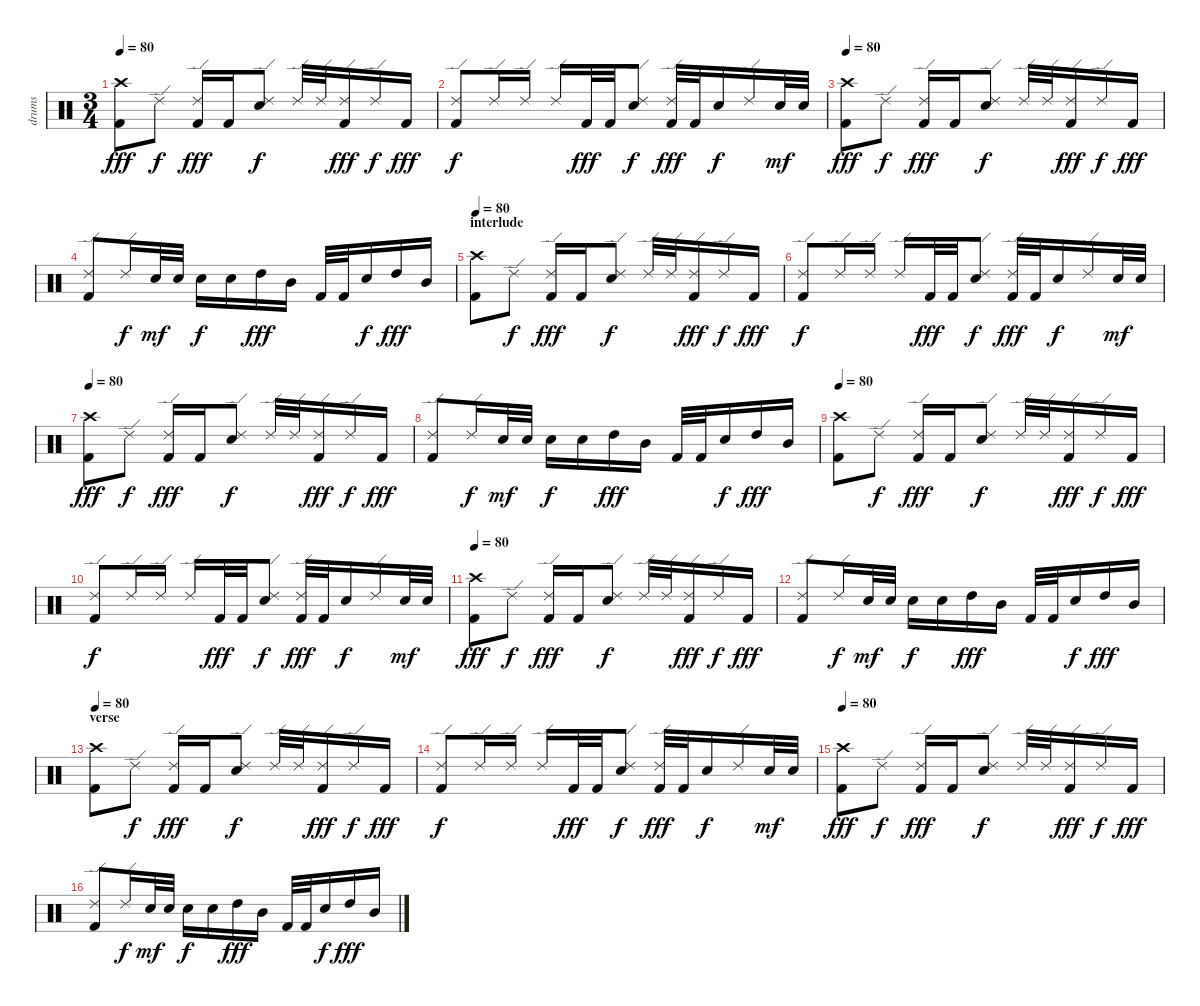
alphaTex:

\track ("drums" "drums") {instrument percussion}
\staff {score}
\articulation defaults
\ts (3 4)
\tempo 80
\clef neutral
\ks c
("Crash high (hit)" "Kick (hit) 2").8{dy fff} "Ride (edge) 2".8{dy f} ("Ride (edge) 2" "Kick (hit) 2").16{dy fff} "Kick (hit) 2".16 ("Ride (edge) 2" "Snare (hit) 2").8{dy f} "Ride (edge) 2".32 "Ride (edge) 2".32 ("Ride (edge) 2" "Kick (hit) 2").16{dy fff} "Ride (edge) 2".16{dy f} "Kick (hit) 2".16{dy fff} |
("Ride (edge) 2" "Kick (hit) 2").8{dy f} "Ride (edge) 2".16 "Ride (edge) 2".16 "Ride (edge) 2".16 "Kick (hit) 2".32{dy fff} "Kick (hit) 2".32 ("Ride (edge) 2" "Snare (hit) 2").8{dy f} ("Ride (edge) 2" "Kick (hit) 2").32{dy fff} "Kick (hit) 2".32 "Snare (hit) 2".16{dy f} "Ride (edge) 2".16 "Snare (hit) 2".32{dy mf} "Snare (hit) 2".32 |
\tempo 80
("Crash high (hit)" "Kick (hit) 2").8{dy fff} "Ride (edge) 2".8{dy f} ("Ride (edge) 2" "Kick (hit) 2").16{dy fff} "Kick (hit) 2".16 ("Ride (edge) 2" "Snare (hit) 2").8{dy f} "Ride (edge) 2".32 "Ride (edge) 2".32 ("Ride (edge) 2" "Kick (hit) 2").16{dy fff} "Ride (edge) 2".16{dy f} "Kick (hit) 2".16{dy fff} |
("Ride (edge) 2" "Kick (hit) 2").8 "Ride (edge) 2".16{dy f} "Snare (hit) 2".32{dy mf} "Snare (hit) 2".32 "Snare (hit) 2".16{dy f} "Snare (hit) 2".16 "High Tom (hit)".16{dy fff} "Mid Tom (hit)".16 "Kick (hit) 2".32 "Kick (hit) 2".32 "Snare (hit) 2".16{dy f} "High Tom (hit)".16{dy fff} "Mid Tom (hit)".16 |
\section ("" "interlude")
\tempo 80
("Crash high (hit)" "Kick (hit) 2").8 "Ride (edge) 2".8{dy f} ("Ride (edge) 2" "Kick (hit) 2").16{dy fff} "Kick (hit) 2".16 ("Ride (edge) 2" "Snare (hit) 2").8{dy f} "Ride (edge) 2".32 "Ride (edge) 2".32 ("Ride (edge) 2" "Kick (hit) 2").16{dy fff} "Ride (edge) 2".16{dy f} "Kick (hit) 2".16{dy fff} |
("Ride (edge) 2" "Kick (hit) 2").8{dy f} "Ride (edge) 2".16 "Ride (edge) 2".16 "Ride (edge) 2".16 "Kick (hit) 2".32{dy fff} "Kick (hit) 2".32 ("Ride (edge) 2" "Snare (hit) 2").8{dy f} ("Ride (edge) 2" "Kick (hit) 2").32{dy fff} "Kick (hit) 2".32 "Snare (hit) 2".16{dy f} "Ride (edge) 2".16 "Snare (hit) 2".32{dy mf} "Snare (hit) 2".32 |
\tempo 80
("Crash high (hit)" "Kick (hit) 2").8{dy fff} "Ride (edge) 2".8{dy f} ("Ride (edge) 2" "Kick (hit) 2").16{dy fff} "Kick (hit) 2".16 ("Ride (edge) 2" "Snare (hit) 2").8{dy f} "Ride (edge) 2".32 "Ride (edge) 2".32 ("Ride (edge) 2" "Kick (hit) 2").16{dy fff} "Ride (edge) 2".16{dy f} "Kick (hit) 2".16{dy fff} |
("Ride (edge) 2" "Kick (hit) 2").8 "Ride (edge) 2".16{dy f} "Snare (hit) 2".32{dy mf} "Snare (hit) 2".32 "Snare (hit) 2".16{dy f} "Snare (hit) 2".16 "High Tom (hit)".16{dy fff} "Mid Tom (hit)".16 "Kick (hit) 2".32 "Kick (hit) 2".32 "Snare (hit) 2".16{dy f} "High Tom (hit)".16{dy fff} "Mid Tom (hit)".16 |
\tempo 80
("Crash high (hit)" "Kick (hit) 2").8 "Ride (edge) 2".8{dy f} ("Ride (edge) 2" "Kick (hit) 2").16{dy fff} "Kick (hit) 2".16 ("Ride (edge) 2" "Snare (hit) 2").8{dy f} "Ride (edge) 2".32 "Ride (edge) 2".32 ("Ride (edge) 2" "Kick (hit) 2").16{dy fff} "Ride (edge) 2".16{dy f} "Kick (hit) 2".16{dy fff} |
("Ride (edge) 2" "Kick (hit) 2").8{dy f} "Ride (edge) 2".16 "Ride (edge) 2".16 "Ride (edge) 2".16 "Kick (hit) 2".32{dy fff} "Kick (hit) 2".32 ("Ride (edge) 2" "Snare (hit) 2").8{dy f} ("Ride (edge) 2" "Kick (hit) 2").32{dy fff} "Kick (hit) 2".32 "Snare (hit) 2".16{dy f} "Ride (edge) 2".16 "Snare (hit) 2".32{dy mf} "Snare (hit) 2".32 |
\tempo 80
("Crash high (hit)" "Kick (hit) 2").8{dy fff} "Ride (edge) 2".8{dy f} ("Ride (edge) 2" "Kick (hit) 2").16{dy fff} "Kick (hit) 2".16 ("Ride (edge) 2" "Snare (hit) 2").8{dy f} "Ride (edge) 2".32 "Ride (edge) 2".32 ("Ride (edge) 2" "Kick (hit) 2").16{dy fff} "Ride (edge) 2".16{dy f} "Kick (hit) 2".16{dy fff} |
("Ride (edge) 2" "Kick (hit) 2").8 "Ride (edge) 2".16{dy f} "Snare (hit) 2".32{dy mf} "Snare (hit) 2".32 "Snare (hit) 2".16{dy f} "Snare (hit) 2".16 "High Tom (hit)".16{dy fff} "Mid Tom (hit)".16 "Kick (hit) 2".32 "Kick (hit) 2".32 "Snare (hit) 2".16{dy f} "High Tom (hit)".16{dy fff} "Mid Tom (hit)".16 |
\section ("" "verse")
\tempo 80
("Crash high (hit)" "Kick (hit) 2").8 "Ride (edge) 2".8{dy f} ("Ride (edge) 2" "Kick (hit) 2").16{dy fff} "Kick (hit) 2".16 ("Ride (edge) 2" "Snare (hit) 2").8{dy f} "Ride (edge) 2".32 "Ride (edge) 2".32 ("Ride (edge) 2" "Kick (hit) 2").16{dy fff} "Ride (edge) 2".16{dy f} "Kick (hit) 2".16{dy fff} |
("Ride (edge) 2" "Kick (hit) 2").8{dy f} "Ride (edge) 2".16 "Ride (edge) 2".16 "Ride (edge) 2".16 "Kick (hit) 2".32{dy fff} "Kick (hit) 2".32 ("Ride (edge) 2" "Snare (hit) 2").8{dy f} ("Ride (edge) 2" "Kick (hit) 2").32{dy fff} "Kick (hit) 2".32 "Snare (hit) 2".16{dy f} "Ride (edge) 2".16 "Snare (hit) 2".32{dy mf} "Snare (hit) 2".32 |
\tempo 80
("Crash high (hit)" "Kick (hit) 2").8{dy fff} "Ride (edge) 2".8{dy f} ("Ride (edge) 2" "Kick (hit) 2").16{dy fff} "Kick (hit) 2".16 ("Ride (edge) 2" "Snare (hit) 2").8{dy f} "Ride (edge) 2".32 "Ride (edge) 2".32 ("Ride (edge) 2" "Kick (hit) 2").16{dy fff} "Ride (edge) 2".16{dy f} "Kick (hit) 2".16{dy fff} |
("Ride (edge) 2" "Kick (hit) 2").8 "Ride (edge) 2".16{dy f} "Snare (hit) 2".32{dy mf} "Snare (hit) 2".32 "Snare (hit) 2".16{dy f} "Snare (hit) 2".16 "High Tom (hit)".16{dy fff} "Mid Tom (hit)".16 "Kick (hit) 2".32 "Kick (hit) 2".32 "Snare (hit) 2".16{dy f} "High Tom (hit)".16{dy fff} "Mid Tom (hit)".16
